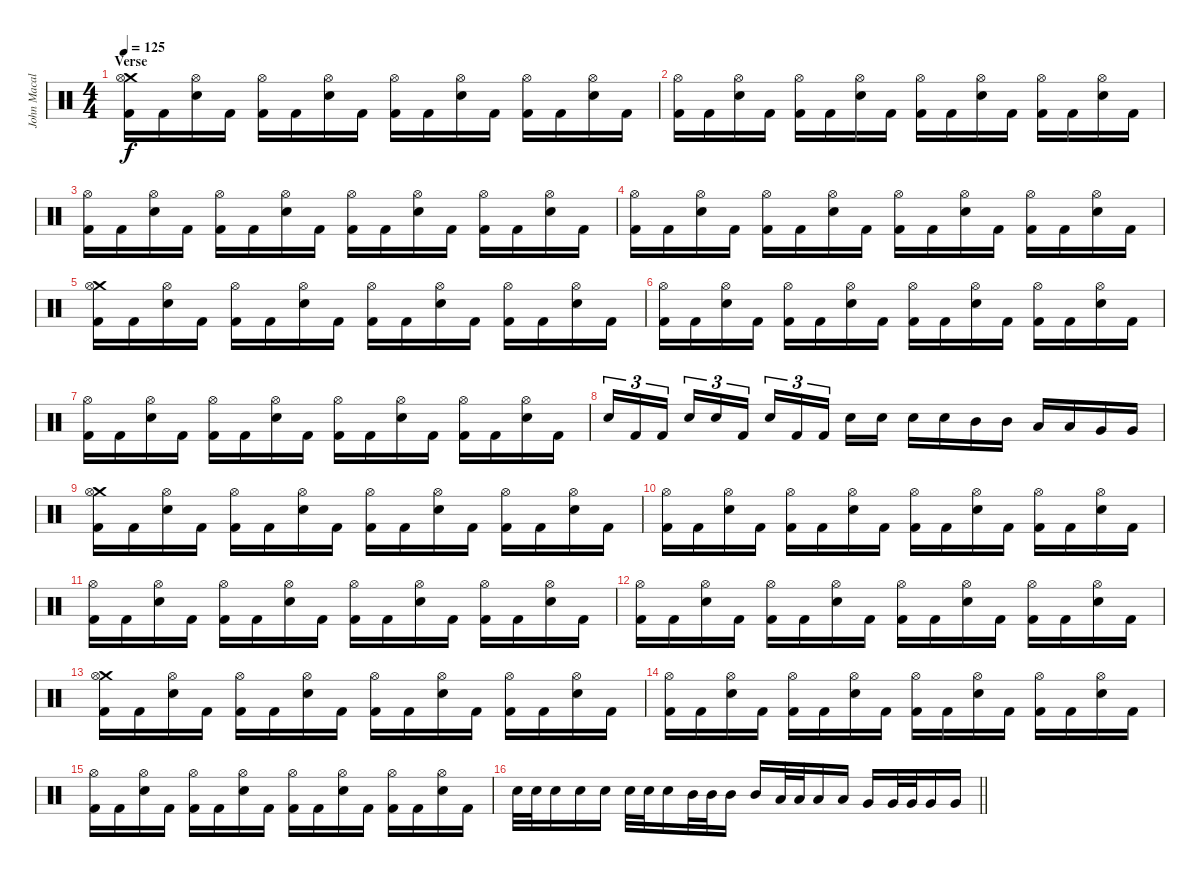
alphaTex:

\track ("John Macaluso " "John Macal") {instrument percussion}
\staff {score}
\articulation defaults
\ts (4 4)
\section ("" "Verse")
\tempo 125
\clef neutral
\ks c
("Crash medium (hit)" "Hi-Hat (open)" "Kick (hit) 2").16{dy f} "Kick (hit) 2".16 ("Hi-Hat (open)" "Snare (hit) 2").16 "Kick (hit) 2".16 ("Hi-Hat (open)" "Kick (hit) 2").16 "Kick (hit) 2".16 ("Hi-Hat (open)" "Snare (hit) 2").16 "Kick (hit) 2".16 ("Hi-Hat (open)" "Kick (hit) 2").16 "Kick (hit) 2".16 ("Hi-Hat (open)" "Snare (hit) 2").16 "Kick (hit) 2".16 ("Hi-Hat (open)" "Kick (hit) 2").16 "Kick (hit) 2".16 ("Hi-Hat (open)" "Snare (hit) 2").16 "Kick (hit) 2".16 |
("Hi-Hat (open)" "Kick (hit) 2").16 "Kick (hit) 2".16 ("Hi-Hat (open)" "Snare (hit) 2").16 "Kick (hit) 2".16 ("Hi-Hat (open)" "Kick (hit) 2").16 "Kick (hit) 2".16 ("Hi-Hat (open)" "Snare (hit) 2").16 "Kick (hit) 2".16 ("Hi-Hat (open)" "Kick (hit) 2").16 "Kick (hit) 2".16 ("Hi-Hat (open)" "Snare (hit) 2").16 "Kick (hit) 2".16 ("Hi-Hat (open)" "Kick (hit) 2").16 "Kick (hit) 2".16 ("Hi-Hat (open)" "Snare (hit) 2").16 "Kick (hit) 2".16 |
("Hi-Hat (open)" "Kick (hit) 2").16 "Kick (hit) 2".16 ("Hi-Hat (open)" "Snare (hit) 2").16 "Kick (hit) 2".16 ("Hi-Hat (open)" "Kick (hit) 2").16 "Kick (hit) 2".16 ("Hi-Hat (open)" "Snare (hit) 2").16 "Kick (hit) 2".16 ("Hi-Hat (open)" "Kick (hit) 2").16 "Kick (hit) 2".16 ("Hi-Hat (open)" "Snare (hit) 2").16 "Kick (hit) 2".16 ("Hi-Hat (open)" "Kick (hit) 2").16 "Kick (hit) 2".16 ("Hi-Hat (open)" "Snare (hit) 2").16 "Kick (hit) 2".16 |
("Hi-Hat (open)" "Kick (hit) 2").16 "Kick (hit) 2".16 ("Hi-Hat (open)" "Snare (hit) 2").16 "Kick (hit) 2".16 ("Hi-Hat (open)" "Kick (hit) 2").16 "Kick (hit) 2".16 ("Hi-Hat (open)" "Snare (hit) 2").16 "Kick (hit) 2".16 ("Hi-Hat (open)" "Kick (hit) 2").16 "Kick (hit) 2".16 ("Hi-Hat (open)" "Snare (hit) 2").16 "Kick (hit) 2".16 ("Hi-Hat (open)" "Kick (hit) 2").16 "Kick (hit) 2".16 ("Hi-Hat (open)" "Snare (hit) 2").16 "Kick (hit) 2".16 |
("Crash medium (hit)" "Hi-Hat (open)" "Kick (hit) 2").16 "Kick (hit) 2".16 ("Hi-Hat (open)" "Snare (hit) 2").16 "Kick (hit) 2".16 ("Hi-Hat (open)" "Kick (hit) 2").16 "Kick (hit) 2".16 ("Hi-Hat (open)" "Snare (hit) 2").16 "Kick (hit) 2".16 ("Hi-Hat (open)" "Kick (hit) 2").16 "Kick (hit) 2".16 ("Hi-Hat (open)" "Snare (hit) 2").16 "Kick (hit) 2".16 ("Hi-Hat (open)" "Kick (hit) 2").16 "Kick (hit) 2".16 ("Hi-Hat (open)" "Snare (hit) 2").16 "Kick (hit) 2".16 |
("Hi-Hat (open)" "Kick (hit) 2").16 "Kick (hit) 2".16 ("Hi-Hat (open)" "Snare (hit) 2").16 "Kick (hit) 2".16 ("Hi-Hat (open)" "Kick (hit) 2").16 "Kick (hit) 2".16 ("Hi-Hat (open)" "Snare (hit) 2").16 "Kick (hit) 2".16 ("Hi-Hat (open)" "Kick (hit) 2").16 "Kick (hit) 2".16 ("Hi-Hat (open)" "Snare (hit) 2").16 "Kick (hit) 2".16 ("Hi-Hat (open)" "Kick (hit) 2").16 "Kick (hit) 2".16 ("Hi-Hat (open)" "Snare (hit) 2").16 "Kick (hit) 2".16 |
("Hi-Hat (open)" "Kick (hit) 2").16 "Kick (hit) 2".16 ("Hi-Hat (open)" "Snare (hit) 2").16 "Kick (hit) 2".16 ("Hi-Hat (open)" "Kick (hit) 2").16 "Kick (hit) 2".16 ("Hi-Hat (open)" "Snare (hit) 2").16 "Kick (hit) 2".16 ("Hi-Hat (open)" "Kick (hit) 2").16 "Kick (hit) 2".16 ("Hi-Hat (open)" "Snare (hit) 2").16 "Kick (hit) 2".16 ("Hi-Hat (open)" "Kick (hit) 2").16 "Kick (hit) 2".16 ("Hi-Hat (open)" "Snare (hit) 2").16 "Kick (hit) 2".16 |
"Snare (hit) 2".16{tu (3 2)} "Kick (hit) 2".16{tu (3 2)} "Kick (hit) 2".16{tu (3 2) beam splitsecondary} "Snare (hit) 2".16{tu (3 2)} "Snare (hit) 2".16{tu (3 2)} "Kick (hit) 2".16{tu (3 2)} "Snare (hit) 2".16{tu (3 2)} "Kick (hit) 2".16{tu (3 2)} "Kick (hit) 2".16{tu (3 2) beam splitsecondary} "Snare (hit) 2".16 "Snare (hit) 2".16 "Snare (hit) 2".16 "Snare (hit) 2".16 "Mid Tom (hit)".16 "Mid Tom (hit)".16 "Low Tom (hit)".16 "Low Tom (hit)".16 "Very Low Tom (hit)".16 "Very Low Tom (hit)".16 |
("Crash medium (hit)" "Hi-Hat (open)" "Kick (hit) 2").16 "Kick (hit) 2".16 ("Hi-Hat (open)" "Snare (hit) 2").16 "Kick (hit) 2".16 ("Hi-Hat (open)" "Kick (hit) 2").16 "Kick (hit) 2".16 ("Hi-Hat (open)" "Snare (hit) 2").16 "Kick (hit) 2".16 ("Hi-Hat (open)" "Kick (hit) 2").16 "Kick (hit) 2".16 ("Hi-Hat (open)" "Snare (hit) 2").16 "Kick (hit) 2".16 ("Hi-Hat (open)" "Kick (hit) 2").16 "Kick (hit) 2".16 ("Hi-Hat (open)" "Snare (hit) 2").16 "Kick (hit) 2".16 |
("Hi-Hat (open)" "Kick (hit) 2").16 "Kick (hit) 2".16 ("Hi-Hat (open)" "Snare (hit) 2").16 "Kick (hit) 2".16 ("Hi-Hat (open)" "Kick (hit) 2").16 "Kick (hit) 2".16 ("Hi-Hat (open)" "Snare (hit) 2").16 "Kick (hit) 2".16 ("Hi-Hat (open)" "Kick (hit) 2").16 "Kick (hit) 2".16 ("Hi-Hat (open)" "Snare (hit) 2").16 "Kick (hit) 2".16 ("Hi-Hat (open)" "Kick (hit) 2").16 "Kick (hit) 2".16 ("Hi-Hat (open)" "Snare (hit) 2").16 "Kick (hit) 2".16 |
("Hi-Hat (open)" "Kick (hit) 2").16 "Kick (hit) 2".16 ("Hi-Hat (open)" "Snare (hit) 2").16 "Kick (hit) 2".16 ("Hi-Hat (open)" "Kick (hit) 2").16 "Kick (hit) 2".16 ("Hi-Hat (open)" "Snare (hit) 2").16 "Kick (hit) 2".16 ("Hi-Hat (open)" "Kick (hit) 2").16 "Kick (hit) 2".16 ("Hi-Hat (open)" "Snare (hit) 2").16 "Kick (hit) 2".16 ("Hi-Hat (open)" "Kick (hit) 2").16 "Kick (hit) 2".16 ("Hi-Hat (open)" "Snare (hit) 2").16 "Kick (hit) 2".16 |
("Hi-Hat (open)" "Kick (hit) 2").16 "Kick (hit) 2".16 ("Hi-Hat (open)" "Snare (hit) 2").16 "Kick (hit) 2".16 ("Hi-Hat (open)" "Kick (hit) 2").16 "Kick (hit) 2".16 ("Hi-Hat (open)" "Snare (hit) 2").16 "Kick (hit) 2".16 ("Hi-Hat (open)" "Kick (hit) 2").16 "Kick (hit) 2".16 ("Hi-Hat (open)" "Snare (hit) 2").16 "Kick (hit) 2".16 ("Hi-Hat (open)" "Kick (hit) 2").16 "Kick (hit) 2".16 ("Hi-Hat (open)" "Snare (hit) 2").16 "Kick (hit) 2".16 |
("Crash medium (hit)" "Hi-Hat (open)" "Kick (hit) 2").16 "Kick (hit) 2".16 ("Hi-Hat (open)" "Snare (hit) 2").16 "Kick (hit) 2".16 ("Hi-Hat (open)" "Kick (hit) 2").16 "Kick (hit) 2".16 ("Hi-Hat (open)" "Snare (hit) 2").16 "Kick (hit) 2".16 ("Hi-Hat (open)" "Kick (hit) 2").16 "Kick (hit) 2".16 ("Hi-Hat (open)" "Snare (hit) 2").16 "Kick (hit) 2".16 ("Hi-Hat (open)" "Kick (hit) 2").16 "Kick (hit) 2".16 ("Hi-Hat (open)" "Snare (hit) 2").16 "Kick (hit) 2".16 |
("Hi-Hat (open)" "Kick (hit) 2").16 "Kick (hit) 2".16 ("Hi-Hat (open)" "Snare (hit) 2").16 "Kick (hit) 2".16 ("Hi-Hat (open)" "Kick (hit) 2").16 "Kick (hit) 2".16 ("Hi-Hat (open)" "Snare (hit) 2").16 "Kick (hit) 2".16 ("Hi-Hat (open)" "Kick (hit) 2").16 "Kick (hit) 2".16 ("Hi-Hat (open)" "Snare (hit) 2").16 "Kick (hit) 2".16 ("Hi-Hat (open)" "Kick (hit) 2").16 "Kick (hit) 2".16 ("Hi-Hat (open)" "Snare (hit) 2").16 "Kick (hit) 2".16 |
("Hi-Hat (open)" "Kick (hit) 2").16 "Kick (hit) 2".16 ("Hi-Hat (open)" "Snare (hit) 2").16 "Kick (hit) 2".16 ("Hi-Hat (open)" "Kick (hit) 2").16 "Kick (hit) 2".16 ("Hi-Hat (open)" "Snare (hit) 2").16 "Kick (hit) 2".16 ("Hi-Hat (open)" "Kick (hit) 2").16 "Kick (hit) 2".16 ("Hi-Hat (open)" "Snare (hit) 2").16 "Kick (hit) 2".16 ("Hi-Hat (open)" "Kick (hit) 2").16 "Kick (hit) 2".16 ("Hi-Hat (open)" "Snare (hit) 2").16 "Kick (hit) 2".16 |
\barLineRight lightlight "Snare (hit) 2".32 "Snare (hit) 2".32 "Snare (hit) 2".16 "Snare (hit) 2".16 "Snare (hit) 2".16 "Snare (hit) 2".32 "Snare (hit) 2".32 "Snare (hit) 2".16 "Mid Tom (hit)".32 "Mid Tom (hit)".32 "Mid Tom (hit)".16 "Mid Tom (hit)".16 "Low Tom (hit)".32 "Low Tom (hit)".32 "Low Tom (hit)".16 "Low Tom (hit)".16 "Very Low Tom (hit)".16 "Very Low Tom (hit)".32 "Very Low Tom (hit)".32 "Very Low Tom (hit)".16 "Very Low Tom (hit)".16
